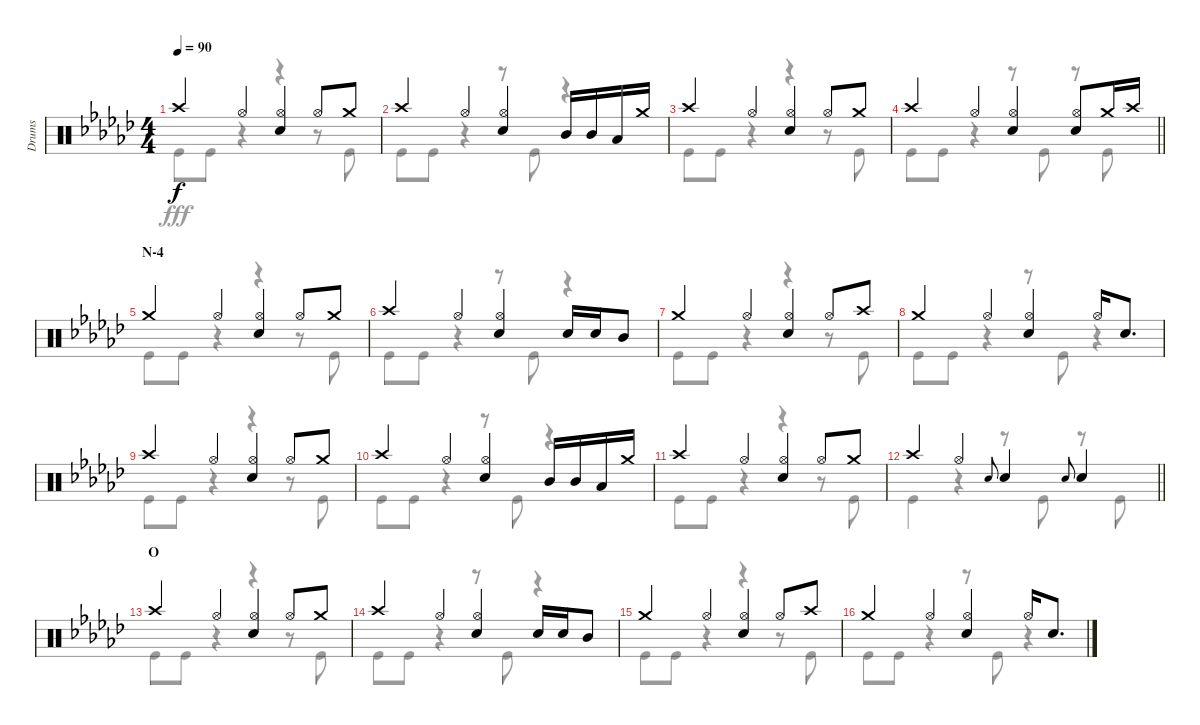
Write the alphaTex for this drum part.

\track ("Drums" "Drums") {instrument percussion}
\staff {score}
\articulation defaults
\voice
\ts (4 4)
\tempo 90
\clef neutral
\ks gb "Crash high (hit)".4{dy f} "Hi-Hat (open)".4
("Hi-Hat (open)" "Snare (hit) 2").4 "Hi-Hat (open)".8 "Crash medium (hit)".8 |
"Crash high (hit)".4 "Hi-Hat (open)".4 ("Hi-Hat (open)" "Snare (hit) 2").4 "Mid Tom (hit)".16 "Mid Tom (hit)".16 "Low Tom (hit)".16 "Crash medium (hit)".16 |
"Crash high (hit)".4 "Hi-Hat (open)".4 ("Hi-Hat (open)" "Snare (hit) 2").4 "Hi-Hat (open)".8 "Crash medium (hit)".8 |
\barLineRight lightlight "Crash high (hit)".4 "Hi-Hat (open)".4
("Hi-Hat (open)" "Snare (hit) 2").4 ("Hi-Hat (open)" "Snare (hit) 2").8 "Crash medium (hit)".16 "Crash high (hit)".16 |
\section ("" "N-4")
"Crash medium (hit)".4 "Hi-Hat (open)".4 ("Hi-Hat (open)" "Snare (hit) 2").4 "Hi-Hat (open)".8 "Crash medium (hit)".8 |
"Crash high (hit)".4 "Hi-Hat (open)".4 ("Hi-Hat (open)" "Snare (hit) 2").4 "Snare (hit) 2".16 "Snare (hit) 2".16 "Mid Tom (hit)".8 |
"Crash medium (hit)".4 "Hi-Hat (open)".4 ("Hi-Hat (open)" "Snare (hit) 2").4 "Hi-Hat (open)".8 "Crash high (hit)".8 |
"Crash medium (hit)".4 "Hi-Hat (open)".4 ("Hi-Hat (open)" "Snare (hit) 2").4 "Hi-Hat (open)".16 "Snare (hit) 2".8{d} |
"Crash high (hit)".4 "Hi-Hat (open)".4 ("Hi-Hat (open)" "Snare (hit) 2").4 "Hi-Hat (open)".8 "Crash medium (hit)".8 |
"Crash high (hit)".4 "Hi-Hat (open)".4 ("Hi-Hat (open)" "Snare (hit) 2").4 "Mid Tom (hit)".16 "Mid Tom (hit)".16 "Low Tom (hit)".16 "Crash medium (hit)".16 |
"Crash high (hit)".4 "Hi-Hat (open)".4 ("Hi-Hat (open)" "Snare (hit) 2").4 "Hi-Hat (open)".8 "Crash medium (hit)".8 |
\barLineRight lightlight "Crash high (hit)".4 "Hi-Hat (open)".4 "Snare (hit) 2".8{gr onbeat} "Snare (hit) 2".4 "Snare (hit) 2".8{gr onbeat} "Snare (hit) 2".4
|
\section ("" "O")
"Crash high (hit)".4{volume 0} "Hi-Hat (open)".4 ("Hi-Hat (open)" "Snare (hit) 2").4 "Hi-Hat (open)".8 "Crash medium (hit)".8 |
"Crash high (hit)".4 "Hi-Hat (open)".4 ("Hi-Hat (open)" "Snare (hit) 2").4 "Snare (hit) 2".16 "Snare (hit) 2".16 "Mid Tom (hit)".8 |
"Crash medium (hit)".4 "Hi-Hat (open)".4 ("Hi-Hat (open)" "Snare (hit) 2").4 "Hi-Hat (open)".8 "Crash high (hit)".8 |
"Crash medium (hit)".4 "Hi-Hat (open)".4 ("Hi-Hat (open)" "Snare (hit) 2").4 "Hi-Hat (open)".16 "Snare (hit) 2".8{d}
\voice
\clef neutral
\ottava regular
\simile none
\ks gb "Kick (hit)".8{dy fff} "Kick (hit)".8
r.4 r.4 r.8 "Kick (hit)".8 |
"Kick (hit)".8 "Kick (hit)".8 r.4 r.8 "Kick (hit)".8 r.4 |
"Kick (hit)".8 "Kick (hit)".8 r.4 r.4 r.8 "Kick (hit)".8 |
\barLineRight lightlight "Kick (hit)".8 "Kick (hit)".8
r.4 r.8 "Kick (hit)".8 r.8 "Kick (hit)".8 |
"Kick (hit)".8 "Kick (hit)".8 r.4 r.4 r.8 "Kick (hit)".8 |
"Kick (hit)".8 "Kick (hit)".8 r.4 r.8 "Kick (hit)".8 r.4 |
"Kick (hit)".8 "Kick (hit)".8 r.4 r.4 r.8 "Kick (hit)".8 |
"Kick (hit)".8 "Kick (hit)".8 r.4 r.8 "Kick (hit)".8 r.4 |
"Kick (hit)".8 "Kick (hit)".8 r.4 r.4 r.8 "Kick (hit)".8 |
"Kick (hit)".8 "Kick (hit)".8 r.4 r.8 "Kick (hit)".8 r.4 |
"Kick (hit)".8 "Kick (hit)".8 r.4 r.4 r.8 "Kick (hit)".8 |
\barLineRight lightlight "Kick (hit)".4
r.4 r.8 "Kick (hit)".8 r.8 "Kick (hit)".8 |
"Kick (hit)".8 "Kick (hit)".8 r.4 r.4 r.8 "Kick (hit)".8 |
"Kick (hit)".8 "Kick (hit)".8 r.4 r.8 "Kick (hit)".8 r.4 |
"Kick (hit)".8 "Kick (hit)".8 r.4 r.4 r.8 "Kick (hit)".8 |
"Kick (hit)".8 "Kick (hit)".8 r.4 r.8 "Kick (hit)".8 r.4
